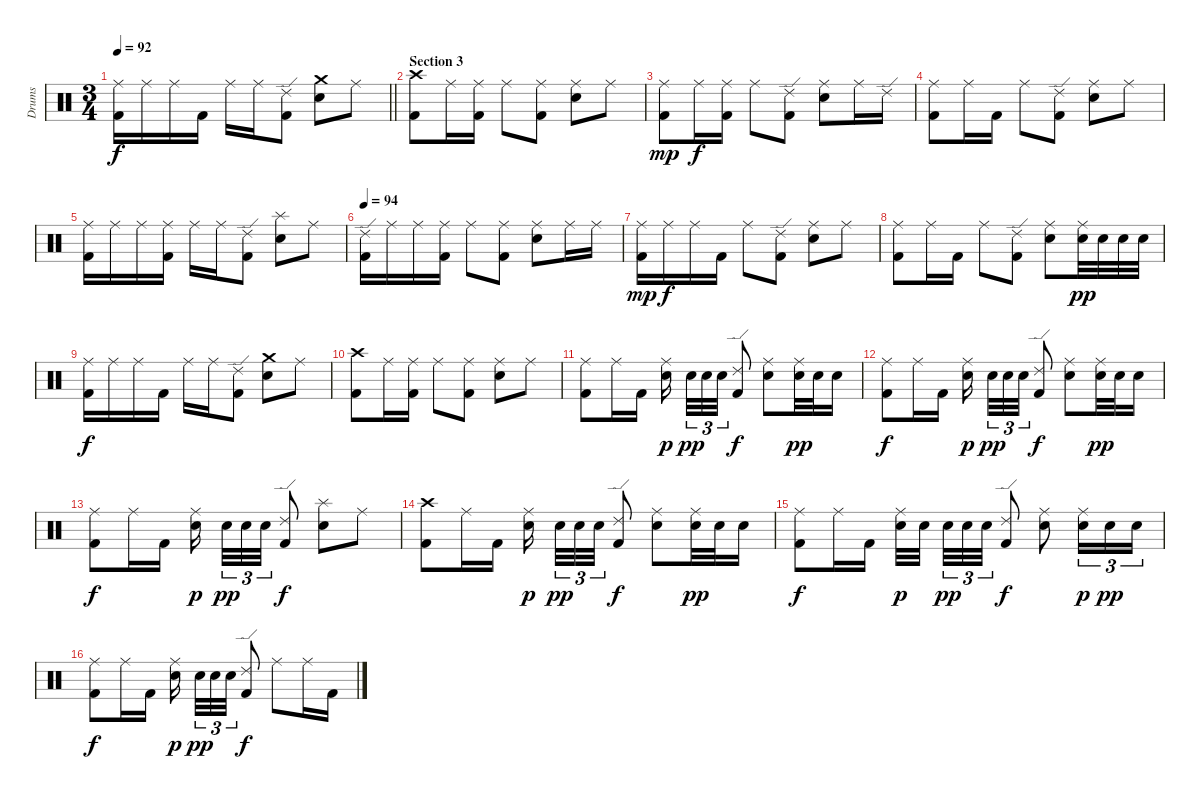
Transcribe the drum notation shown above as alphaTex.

\track ("Drums" "Drums") {instrument percussion}
\staff {score}
\articulation defaults
\ts (3 4)
\tempo 92
\clef neutral
\barLineRight lightlight
\ks c
("Ride (middle)" "Kick (hit) 2").16{dy f} "Ride (middle)".16 "Ride (middle)".16 "Kick (hit) 2".16 "Ride (middle)".16 "Ride (middle)".16 ("Ride (edge) 2" "Kick (hit) 2").8 ("Crash medium (hit)" "Electric Snare (hit)").8 "Ride (middle)".8 |
\section ("" "Section 3")
("Crash high (hit)" "Kick (hit) 2").8 "Ride (middle)".16 ("Ride (middle)" "Kick (hit) 2").16 "Ride (middle)".8 ("Ride (middle)" "Kick (hit) 2").8 ("Ride (middle)" "Electric Snare (hit)").8 "Ride (middle)".8 |
("Ride (middle)" "Kick (hit) 2").8{dy mp} "Ride (middle)".16{dy f} ("Ride (middle)" "Kick (hit) 2").16 "Ride (middle)".8 ("Ride (edge) 2" "Kick (hit) 2").8 ("Ride (middle)" "Electric Snare (hit)").8 "Ride (middle)".16 "Ride (edge) 2".16 |
("Ride (middle)" "Kick (hit) 2").8 "Ride (middle)".16 "Kick (hit) 2".16 "Ride (middle)".8 ("Ride (edge) 2" "Kick (hit) 2").8 ("Ride (middle)" "Electric Snare (hit)").8 "Ride (middle)".8 |
("Ride (middle)" "Kick (hit) 2").16 "Ride (middle)".16 "Ride (middle)".16 ("Ride (middle)" "Kick (hit) 2").16 "Ride (middle)".16 "Ride (middle)".16 ("Ride (edge) 2" "Kick (hit) 2").8 ("Splash (hit)" "Electric Snare (hit)").8 "Ride (middle)".8 |
\tempo 94
("Ride (edge) 2" "Kick (hit) 2").16 "Ride (middle)".16 "Ride (middle)".16 ("Ride (middle)" "Kick (hit) 2").16 "Ride (middle)".8 ("Ride (middle)" "Kick (hit) 2").8 ("Ride (middle)" "Electric Snare (hit)").8 "Ride (middle)".16 "Ride (middle)".16 |
("Ride (middle)" "Kick (hit) 2").16{dy mp} "Ride (middle)".16{dy f} "Ride (middle)".16 "Kick (hit) 2".16 "Ride (middle)".8 ("Ride (edge) 2" "Kick (hit) 2").8 ("Ride (middle)" "Electric Snare (hit)").8 "Ride (middle)".8 |
("Ride (middle)" "Kick (hit) 2").8 "Ride (middle)".16 "Kick (hit) 2".16 "Ride (middle)".8 ("Ride (edge) 2" "Kick (hit) 2").8 ("Ride (middle)" "Electric Snare (hit)").8 ("Ride (middle)" "Electric Snare (hit)").32{dy pp} "Electric Snare (hit)".32 "Electric Snare (hit)".32 "Electric Snare (hit)".32 |
("Ride (middle)" "Kick (hit) 2").16{dy f} "Ride (middle)".16 "Ride (middle)".16 "Kick (hit) 2".16 "Ride (middle)".16 "Ride (middle)".16 ("Ride (edge) 2" "Kick (hit) 2").8 ("Crash medium (hit)" "Electric Snare (hit)").8 "Ride (middle)".8 |
("Crash high (hit)" "Kick (hit) 2").8 "Ride (middle)".16 ("Ride (middle)" "Kick (hit) 2").16 "Ride (middle)".8 ("Ride (middle)" "Kick (hit) 2").8 ("Ride (middle)" "Electric Snare (hit)").8 "Ride (middle)".8 |
("Ride (middle)" "Kick (hit) 2").8 "Ride (middle)".16 "Kick (hit) 2".16 ("Ride (middle)" "Electric Snare (hit)").16{dy p beam splitsecondary} "Electric Snare (hit)".32{tu (3 2) dy pp} "Electric Snare (hit)".32{tu (3 2)} "Electric Snare (hit)".32{tu (3 2)} ("Ride (edge) 2" "Kick (hit) 2").8{dy f} ("Ride (middle)" "Electric Snare (hit)").8 ("Ride (middle)" "Electric Snare (hit)").32{dy pp} "Electric Snare (hit)".32 "Electric Snare (hit)".16 |
("Ride (middle)" "Kick (hit) 2").8{dy f} "Ride (middle)".16 "Kick (hit) 2".16 ("Ride (middle)" "Electric Snare (hit)").16{dy p beam splitsecondary} "Electric Snare (hit)".32{tu (3 2) dy pp} "Electric Snare (hit)".32{tu (3 2)} "Electric Snare (hit)".32{tu (3 2)} ("Ride (edge) 2" "Kick (hit) 2").8{dy f} ("Ride (middle)" "Electric Snare (hit)").8 ("Ride (middle)" "Electric Snare (hit)").32{dy pp} "Electric Snare (hit)".32 "Electric Snare (hit)".16 |
("Ride (middle)" "Kick (hit) 2").8{dy f} "Ride (middle)".16 "Kick (hit) 2".16 ("Ride (middle)" "Electric Snare (hit)").16{dy p beam splitsecondary} "Electric Snare (hit)".32{tu (3 2) dy pp} "Electric Snare (hit)".32{tu (3 2)} "Electric Snare (hit)".32{tu (3 2)} ("Ride (edge) 2" "Kick (hit) 2").8{dy f} ("Splash (hit)" "Electric Snare (hit)").8 "Ride (middle)".8 |
("Crash high (hit)" "Kick (hit) 2").8 "Ride (middle)".16 "Kick (hit) 2".16 ("Ride (middle)" "Electric Snare (hit)").16{dy p beam splitsecondary} "Electric Snare (hit)".32{tu (3 2) dy pp} "Electric Snare (hit)".32{tu (3 2)} "Electric Snare (hit)".32{tu (3 2)} ("Ride (edge) 2" "Kick (hit) 2").8{dy f} ("Ride (middle)" "Electric Snare (hit)").8 ("Ride (middle)" "Electric Snare (hit)").32{dy pp} "Electric Snare (hit)".32 "Electric Snare (hit)".16 |
("Ride (middle)" "Kick (hit) 2").8{dy f} "Ride (middle)".16 "Kick (hit) 2".16 ("Ride (middle)" "Electric Snare (hit)").32{dy p} "Electric Snare (hit)".32{beam splitsecondary} "Electric Snare (hit)".32{tu (3 2) dy pp} "Electric Snare (hit)".32{tu (3 2)} "Electric Snare (hit)".32{tu (3 2)} ("Ride (edge) 2" "Kick (hit) 2").8{dy f} ("Ride (middle)" "Electric Snare (hit)").8 ("Ride (middle)" "Electric Snare (hit)").16{tu (3 2) dy p} "Electric Snare (hit)".16{tu (3 2) dy pp} "Electric Snare (hit)".16{tu (3 2)} |
("Ride (middle)" "Kick (hit) 2").8{dy f} "Ride (middle)".16 "Kick (hit) 2".16 ("Ride (middle)" "Electric Snare (hit)").16{dy p beam splitsecondary} "Electric Snare (hit)".32{tu (3 2) dy pp} "Electric Snare (hit)".32{tu (3 2)} "Electric Snare (hit)".32{tu (3 2)} ("Ride (edge) 2" "Kick (hit) 2").8{dy f} "Ride (middle)".8 "Ride (middle)".16 "Kick (hit) 2".16
